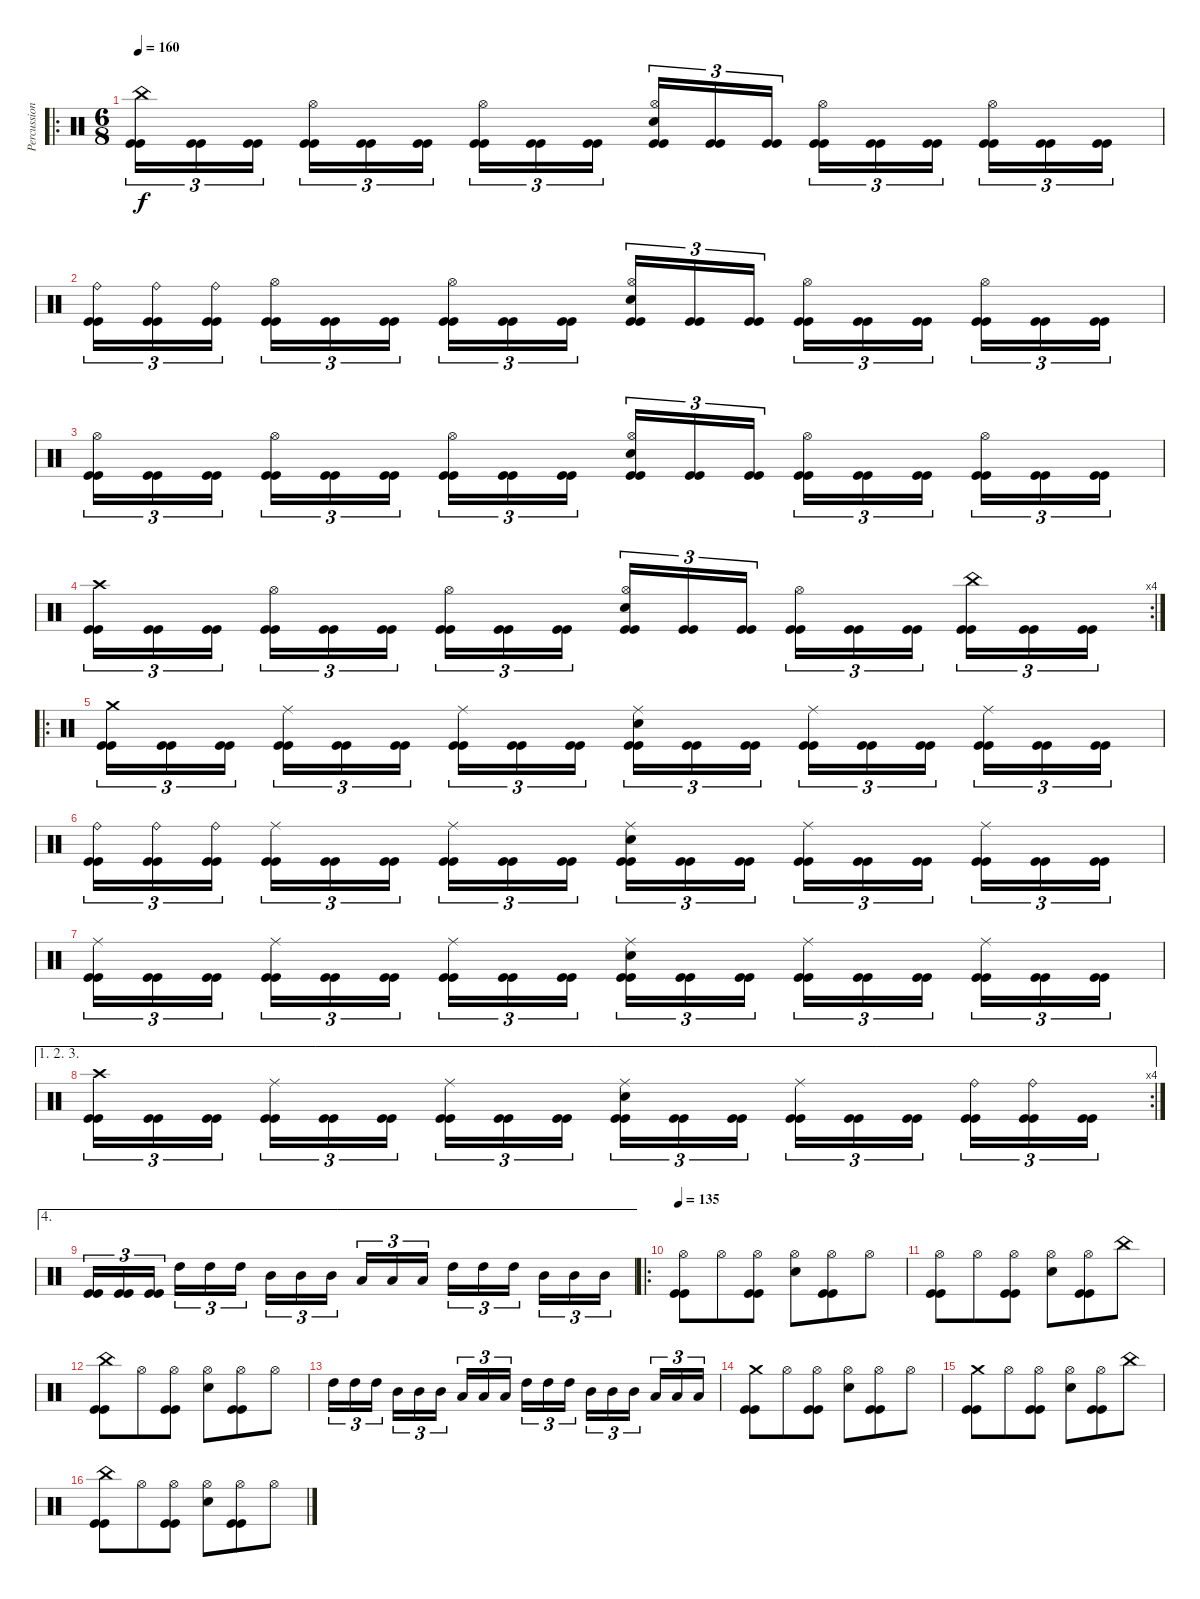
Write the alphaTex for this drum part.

\track ("Percussion" "Percussion") {instrument percussion}
\staff {score}
\articulation defaults
\ro
\ts (6 8)
\tempo 160
\clef neutral
\ks c
("China (hit)" "Kick (hit)" "Kick (hit)").16{tu (3 2) dy f} ("Kick (hit)" "Kick (hit)").16{tu (3 2)} ("Kick (hit)" "Kick (hit)").16{tu (3 2)} ("Hi-Hat (open)" "Kick (hit)" "Kick (hit)").16{tu (3 2)} ("Kick (hit)" "Kick (hit)").16{tu (3 2)} ("Kick (hit)" "Kick (hit)").16{tu (3 2)} ("Hi-Hat (open)" "Kick (hit)" "Kick (hit)").16{tu (3 2)} ("Kick (hit)" "Kick (hit)").16{tu (3 2)} ("Kick (hit)" "Kick (hit)").16{tu (3 2)} ("Hi-Hat (open)" "Snare (hit) 2" "Kick (hit)" "Kick (hit)").16{tu (3 2)} ("Kick (hit)" "Kick (hit)").16{tu (3 2)} ("Kick (hit)" "Kick (hit)").16{tu (3 2)} ("Hi-Hat (open)" "Kick (hit)" "Kick (hit)").16{tu (3 2)} ("Kick (hit)" "Kick (hit)").16{tu (3 2)} ("Kick (hit)" "Kick (hit)").16{tu (3 2)} ("Hi-Hat (open)" "Kick (hit)" "Kick (hit)").16{tu (3 2)} ("Kick (hit)" "Kick (hit)").16{tu (3 2)} ("Kick (hit)" "Kick (hit)").16{tu (3 2)} |
("Ride (bell)" "Kick (hit)" "Kick (hit)").16{tu (3 2)} ("Ride (bell)" "Kick (hit)" "Kick (hit)").16{tu (3 2)} ("Ride (bell)" "Kick (hit)" "Kick (hit)").16{tu (3 2)} ("Hi-Hat (open)" "Kick (hit)" "Kick (hit)").16{tu (3 2)} ("Kick (hit)" "Kick (hit)").16{tu (3 2)} ("Kick (hit)" "Kick (hit)").16{tu (3 2)} ("Hi-Hat (open)" "Kick (hit)" "Kick (hit)").16{tu (3 2)} ("Kick (hit)" "Kick (hit)").16{tu (3 2)} ("Kick (hit)" "Kick (hit)").16{tu (3 2)} ("Hi-Hat (open)" "Snare (hit) 2" "Kick (hit)" "Kick (hit)").16{tu (3 2)} ("Kick (hit)" "Kick (hit)").16{tu (3 2)} ("Kick (hit)" "Kick (hit)").16{tu (3 2)} ("Hi-Hat (open)" "Kick (hit)" "Kick (hit)").16{tu (3 2)} ("Kick (hit)" "Kick (hit)").16{tu (3 2)} ("Kick (hit)" "Kick (hit)").16{tu (3 2)} ("Hi-Hat (open)" "Kick (hit)" "Kick (hit)").16{tu (3 2)} ("Kick (hit)" "Kick (hit)").16{tu (3 2)} ("Kick (hit)" "Kick (hit)").16{tu (3 2)} |
("Hi-Hat (open)" "Kick (hit)" "Kick (hit)").16{tu (3 2)} ("Kick (hit)" "Kick (hit)").16{tu (3 2)} ("Kick (hit)" "Kick (hit)").16{tu (3 2)} ("Hi-Hat (open)" "Kick (hit)" "Kick (hit)").16{tu (3 2)} ("Kick (hit)" "Kick (hit)").16{tu (3 2)} ("Kick (hit)" "Kick (hit)").16{tu (3 2)} ("Hi-Hat (open)" "Kick (hit)" "Kick (hit)").16{tu (3 2)} ("Kick (hit)" "Kick (hit)").16{tu (3 2)} ("Kick (hit)" "Kick (hit)").16{tu (3 2)} ("Hi-Hat (open)" "Snare (hit) 2" "Kick (hit)" "Kick (hit)").16{tu (3 2)} ("Kick (hit)" "Kick (hit)").16{tu (3 2)} ("Kick (hit)" "Kick (hit)").16{tu (3 2)} ("Hi-Hat (open)" "Kick (hit)" "Kick (hit)").16{tu (3 2)} ("Kick (hit)" "Kick (hit)").16{tu (3 2)} ("Kick (hit)" "Kick (hit)").16{tu (3 2)} ("Hi-Hat (open)" "Kick (hit)" "Kick (hit)").16{tu (3 2)} ("Kick (hit)" "Kick (hit)").16{tu (3 2)} ("Kick (hit)" "Kick (hit)").16{tu (3 2)} |
\rc 4
("Crash high (hit)" "Kick (hit)" "Kick (hit)").16{tu (3 2)} ("Kick (hit)" "Kick (hit)").16{tu (3 2)} ("Kick (hit)" "Kick (hit)").16{tu (3 2)} ("Hi-Hat (open)" "Kick (hit)" "Kick (hit)").16{tu (3 2)} ("Kick (hit)" "Kick (hit)").16{tu (3 2)} ("Kick (hit)" "Kick (hit)").16{tu (3 2)} ("Hi-Hat (open)" "Kick (hit)" "Kick (hit)").16{tu (3 2)} ("Kick (hit)" "Kick (hit)").16{tu (3 2)} ("Kick (hit)" "Kick (hit)").16{tu (3 2)} ("Hi-Hat (open)" "Snare (hit) 2" "Kick (hit)" "Kick (hit)").16{tu (3 2)} ("Kick (hit)" "Kick (hit)").16{tu (3 2)} ("Kick (hit)" "Kick (hit)").16{tu (3 2)} ("Hi-Hat (open)" "Kick (hit)" "Kick (hit)").16{tu (3 2)} ("Kick (hit)" "Kick (hit)").16{tu (3 2)} ("Kick (hit)" "Kick (hit)").16{tu (3 2)} ("China (hit)" "Kick (hit)" "Kick (hit)").16{tu (3 2)} ("Kick (hit)" "Kick (hit)").16{tu (3 2)} ("Kick (hit)" "Kick (hit)").16{tu (3 2)} |
\ro
("Crash medium (hit)" "Kick (hit)" "Kick (hit)").16{tu (3 2)} ("Kick (hit)" "Kick (hit)").16{tu (3 2)} ("Kick (hit)" "Kick (hit)").16{tu (3 2)} ("Ride (middle)" "Kick (hit)" "Kick (hit)").16{tu (3 2)} ("Kick (hit)" "Kick (hit)").16{tu (3 2)} ("Kick (hit)" "Kick (hit)").16{tu (3 2)} ("Ride (middle)" "Kick (hit)" "Kick (hit)").16{tu (3 2)} ("Kick (hit)" "Kick (hit)").16{tu (3 2)} ("Kick (hit)" "Kick (hit)").16{tu (3 2)} ("Ride (middle)" "Snare (hit) 2" "Kick (hit)" "Kick (hit)").16{tu (3 2)} ("Kick (hit)" "Kick (hit)").16{tu (3 2)} ("Kick (hit)" "Kick (hit)").16{tu (3 2)} ("Ride (middle)" "Kick (hit)" "Kick (hit)").16{tu (3 2)} ("Kick (hit)" "Kick (hit)").16{tu (3 2)} ("Kick (hit)" "Kick (hit)").16{tu (3 2)} ("Ride (middle)" "Kick (hit)" "Kick (hit)").16{tu (3 2)} ("Kick (hit)" "Kick (hit)").16{tu (3 2)} ("Kick (hit)" "Kick (hit)").16{tu (3 2)} |
("Ride (bell)" "Kick (hit)" "Kick (hit)").16{tu (3 2)} ("Ride (bell)" "Kick (hit)" "Kick (hit)").16{tu (3 2)} ("Ride (bell)" "Kick (hit)" "Kick (hit)").16{tu (3 2)} ("Ride (middle)" "Kick (hit)" "Kick (hit)").16{tu (3 2)} ("Kick (hit)" "Kick (hit)").16{tu (3 2)} ("Kick (hit)" "Kick (hit)").16{tu (3 2)} ("Ride (middle)" "Kick (hit)" "Kick (hit)").16{tu (3 2)} ("Kick (hit)" "Kick (hit)").16{tu (3 2)} ("Kick (hit)" "Kick (hit)").16{tu (3 2)} ("Ride (middle)" "Snare (hit) 2" "Kick (hit)" "Kick (hit)").16{tu (3 2)} ("Kick (hit)" "Kick (hit)").16{tu (3 2)} ("Kick (hit)" "Kick (hit)").16{tu (3 2)} ("Ride (middle)" "Kick (hit)" "Kick (hit)").16{tu (3 2)} ("Kick (hit)" "Kick (hit)").16{tu (3 2)} ("Kick (hit)" "Kick (hit)").16{tu (3 2)} ("Ride (middle)" "Kick (hit)" "Kick (hit)").16{tu (3 2)} ("Kick (hit)" "Kick (hit)").16{tu (3 2)} ("Kick (hit)" "Kick (hit)").16{tu (3 2)} |
("Ride (middle)" "Kick (hit)" "Kick (hit)").16{tu (3 2)} ("Kick (hit)" "Kick (hit)").16{tu (3 2)} ("Kick (hit)" "Kick (hit)").16{tu (3 2)} ("Ride (middle)" "Kick (hit)" "Kick (hit)").16{tu (3 2)} ("Kick (hit)" "Kick (hit)").16{tu (3 2)} ("Kick (hit)" "Kick (hit)").16{tu (3 2)} ("Ride (middle)" "Kick (hit)" "Kick (hit)").16{tu (3 2)} ("Kick (hit)" "Kick (hit)").16{tu (3 2)} ("Kick (hit)" "Kick (hit)").16{tu (3 2)} ("Ride (middle)" "Snare (hit) 2" "Kick (hit)" "Kick (hit)").16{tu (3 2)} ("Kick (hit)" "Kick (hit)").16{tu (3 2)} ("Kick (hit)" "Kick (hit)").16{tu (3 2)} ("Ride (middle)" "Kick (hit)" "Kick (hit)").16{tu (3 2)} ("Kick (hit)" "Kick (hit)").16{tu (3 2)} ("Kick (hit)" "Kick (hit)").16{tu (3 2)} ("Ride (middle)" "Kick (hit)" "Kick (hit)").16{tu (3 2)} ("Kick (hit)" "Kick (hit)").16{tu (3 2)} ("Kick (hit)" "Kick (hit)").16{tu (3 2)} |
\ae (1 2 3)
\rc 4
("Crash high (hit)" "Kick (hit)" "Kick (hit)").16{tu (3 2)} ("Kick (hit)" "Kick (hit)").16{tu (3 2)} ("Kick (hit)" "Kick (hit)").16{tu (3 2)} ("Ride (middle)" "Kick (hit)" "Kick (hit)").16{tu (3 2)} ("Kick (hit)" "Kick (hit)").16{tu (3 2)} ("Kick (hit)" "Kick (hit)").16{tu (3 2)} ("Ride (middle)" "Kick (hit)" "Kick (hit)").16{tu (3 2)} ("Kick (hit)" "Kick (hit)").16{tu (3 2)} ("Kick (hit)" "Kick (hit)").16{tu (3 2)} ("Ride (middle)" "Snare (hit) 2" "Kick (hit)" "Kick (hit)").16{tu (3 2)} ("Kick (hit)" "Kick (hit)").16{tu (3 2)} ("Kick (hit)" "Kick (hit)").16{tu (3 2)} ("Ride (middle)" "Kick (hit)" "Kick (hit)").16{tu (3 2)} ("Kick (hit)" "Kick (hit)").16{tu (3 2)} ("Kick (hit)" "Kick (hit)").16{tu (3 2)} ("Ride (bell)" "Kick (hit)" "Kick (hit)").16{tu (3 2)} ("Ride (bell)" "Kick (hit)" "Kick (hit)").16{tu (3 2)} ("Kick (hit)" "Kick (hit)").16{tu (3 2)} |
\ae 4
("Kick (hit)" "Kick (hit)").16{tu (3 2)} ("Kick (hit)" "Kick (hit)").16{tu (3 2)} ("Kick (hit)" "Kick (hit)").16{tu (3 2)} "High Tom (hit)".16{tu (3 2)} "High Tom (hit)".16{tu (3 2)} "High Tom (hit)".16{tu (3 2)} "Mid Tom (hit)".16{tu (3 2)} "Mid Tom (hit)".16{tu (3 2)} "Mid Tom (hit)".16{tu (3 2)} "Low Tom (hit)".16{tu (3 2)} "Low Tom (hit)".16{tu (3 2)} "Low Tom (hit)".16{tu (3 2)} "High Tom (hit)".16{tu (3 2)} "High Tom (hit)".16{tu (3 2)} "High Tom (hit)".16{tu (3 2)} "Mid Tom (hit)".16{tu (3 2)} "Mid Tom (hit)".16{tu (3 2)} "Mid Tom (hit)".16{tu (3 2)} |
\ro
\tempo 135
("Hi-Hat (open)" "Kick (hit)" "Kick (hit)").8 "Hi-Hat (open)".8 ("Hi-Hat (open)" "Kick (hit)" "Kick (hit)").8 ("Hi-Hat (open)" "Snare (hit) 2").8 ("Hi-Hat (open)" "Kick (hit)" "Kick (hit)").8 "Hi-Hat (open)".8 |
("Hi-Hat (open)" "Kick (hit)" "Kick (hit)").8 "Hi-Hat (open)".8 ("Hi-Hat (open)" "Kick (hit)" "Kick (hit)").8 ("Hi-Hat (open)" "Snare (hit) 2").8 ("Hi-Hat (open)" "Kick (hit)" "Kick (hit)").8 "China (hit)".8 |
("China (hit)" "Kick (hit)" "Kick (hit)").8 "Hi-Hat (open)".8 ("Hi-Hat (open)" "Kick (hit)" "Kick (hit)").8 ("Hi-Hat (open)" "Snare (hit) 2").8 ("Hi-Hat (open)" "Kick (hit)" "Kick (hit)").8 "Hi-Hat (open)".8 |
"High Tom (hit)".16{tu (3 2)} "High Tom (hit)".16{tu (3 2)} "High Tom (hit)".16{tu (3 2)} "Mid Tom (hit)".16{tu (3 2)} "Mid Tom (hit)".16{tu (3 2)} "Mid Tom (hit)".16{tu (3 2)} "Low Tom (hit)".16{tu (3 2)} "Low Tom (hit)".16{tu (3 2)} "Low Tom (hit)".16{tu (3 2)} "High Tom (hit)".16{tu (3 2)} "High Tom (hit)".16{tu (3 2)} "High Tom (hit)".16{tu (3 2)} "Mid Tom (hit)".16{tu (3 2)} "Mid Tom (hit)".16{tu (3 2)} "Mid Tom (hit)".16{tu (3 2)} "Low Tom (hit)".16{tu (3 2)} "Low Tom (hit)".16{tu (3 2)} "Low Tom (hit)".16{tu (3 2)} |
("Crash medium (hit)" "Kick (hit)" "Kick (hit)").8 "Hi-Hat (open)".8 ("Hi-Hat (open)" "Kick (hit)" "Kick (hit)").8 ("Hi-Hat (open)" "Snare (hit) 2").8 ("Hi-Hat (open)" "Kick (hit)" "Kick (hit)").8 "Hi-Hat (open)".8 |
("Crash medium (hit)" "Kick (hit)" "Kick (hit)").8 "Hi-Hat (open)".8 ("Hi-Hat (open)" "Kick (hit)" "Kick (hit)").8 ("Hi-Hat (open)" "Snare (hit) 2").8 ("Hi-Hat (open)" "Kick (hit)" "Kick (hit)").8 "China (hit)".8 |
("China (hit)" "Kick (hit)" "Kick (hit)").8 "Hi-Hat (open)".8 ("Hi-Hat (open)" "Kick (hit)" "Kick (hit)").8 ("Hi-Hat (open)" "Snare (hit) 2").8 ("Hi-Hat (open)" "Kick (hit)" "Kick (hit)").8 "Hi-Hat (open)".8
